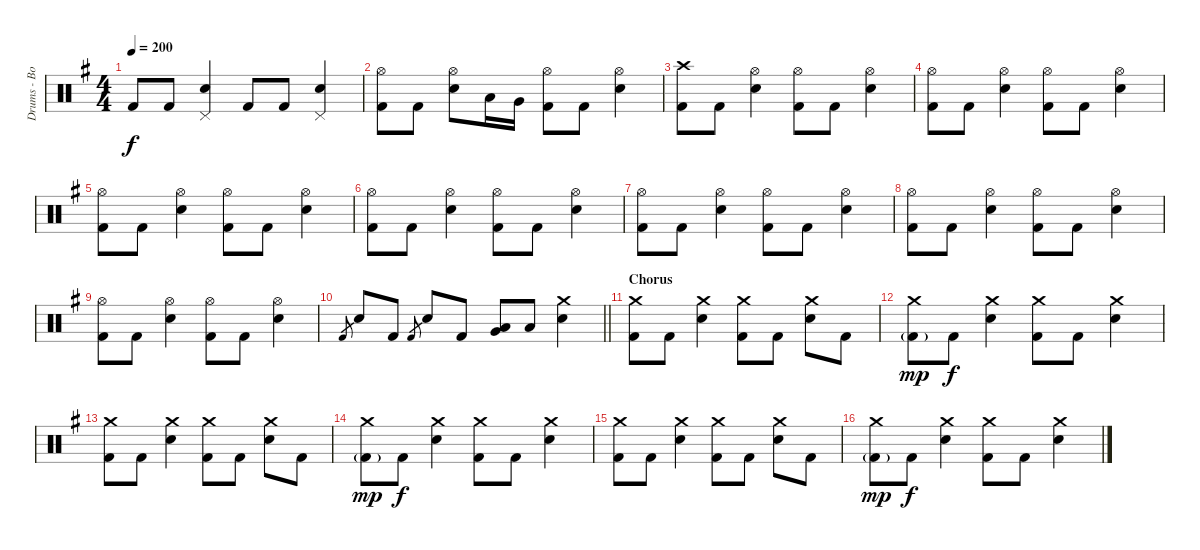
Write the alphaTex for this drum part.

\track ("Drums - Bob Bryar" "Drums - Bo") {instrument percussion}
\staff {score}
\articulation defaults
\ts (4 4)
\tempo 200
\clef neutral
\ks eminor "Kick (hit) 2".8{dy f} "Kick (hit) 2".8
("Electric Snare (hit)" "Pedal Hi-Hat (hit)").4 "Kick (hit) 2".8 "Kick (hit) 2".8 ("Electric Snare (hit)" "Pedal Hi-Hat (hit)").4 |
("Kick (hit) 2" "Hi-Hat (open)").8 "Kick (hit) 2".8 ("Electric Snare (hit)" "Hi-Hat (open)").8 "Low Tom (hit)".16 "Very Low Tom (hit)".16 ("Kick (hit) 2" "Hi-Hat (open)").8 "Kick (hit) 2".8 ("Electric Snare (hit)" "Hi-Hat (open)").4 |
("Kick (hit) 2" "Crash high (hit)").8 "Kick (hit) 2".8 ("Electric Snare (hit)" "Hi-Hat (open)").4 ("Kick (hit) 2" "Hi-Hat (open)").8 "Kick (hit) 2".8 ("Electric Snare (hit)" "Hi-Hat (open)").4 |
("Kick (hit) 2" "Hi-Hat (open)").8 "Kick (hit) 2".8 ("Electric Snare (hit)" "Hi-Hat (open)").4 ("Kick (hit) 2" "Hi-Hat (open)").8 "Kick (hit) 2".8 ("Electric Snare (hit)" "Hi-Hat (open)").4 |
("Kick (hit) 2" "Hi-Hat (open)").8 "Kick (hit) 2".8 ("Electric Snare (hit)" "Hi-Hat (open)").4 ("Kick (hit) 2" "Hi-Hat (open)").8 "Kick (hit) 2".8 ("Electric Snare (hit)" "Hi-Hat (open)").4 |
("Kick (hit) 2" "Hi-Hat (open)").8 "Kick (hit) 2".8 ("Electric Snare (hit)" "Hi-Hat (open)").4 ("Kick (hit) 2" "Hi-Hat (open)").8 "Kick (hit) 2".8 ("Electric Snare (hit)" "Hi-Hat (open)").4 |
("Kick (hit) 2" "Hi-Hat (open)").8 "Kick (hit) 2".8 ("Electric Snare (hit)" "Hi-Hat (open)").4 ("Kick (hit) 2" "Hi-Hat (open)").8 "Kick (hit) 2".8 ("Electric Snare (hit)" "Hi-Hat (open)").4 |
("Kick (hit) 2" "Hi-Hat (open)").8 "Kick (hit) 2".8 ("Electric Snare (hit)" "Hi-Hat (open)").4 ("Kick (hit) 2" "Hi-Hat (open)").8 "Kick (hit) 2".8 ("Electric Snare (hit)" "Hi-Hat (open)").4 |
("Kick (hit) 2" "Hi-Hat (open)").8 "Kick (hit) 2".8 ("Electric Snare (hit)" "Hi-Hat (open)").4 ("Kick (hit) 2" "Hi-Hat (open)").8 "Kick (hit) 2".8 ("Electric Snare (hit)" "Hi-Hat (open)").4 |
\barLineRight lightlight "Kick (hit) 2".8{gr} "Electric Snare (hit)".8 "Kick (hit) 2".8 "Kick (hit) 2".8{gr} "Electric Snare (hit)".8 "Kick (hit) 2".8
("Low Tom (hit)" "Very Low Tom (hit)").8 "Low Floor Tom (hit)".8 ("Electric Snare (hit)" "Crash medium (hit)").4 |
\section ("" "Chorus")
("Kick (hit) 2" "Crash medium (hit)").8 "Kick (hit) 2".8 ("Electric Snare (hit)" "Crash medium (hit)").4 ("Kick (hit) 2" "Crash medium (hit)").8 "Kick (hit) 2".8 ("Electric Snare (hit)" "Crash medium (hit)").8 "Kick (hit) 2".8 |
("Kick (hit) 2"{g} "Crash medium (hit)").8{dy mp} "Kick (hit) 2".8{dy f} ("Electric Snare (hit)" "Crash medium (hit)").4 ("Kick (hit) 2" "Crash medium (hit)").8 "Kick (hit) 2".8 ("Electric Snare (hit)" "Crash medium (hit)").4 |
("Kick (hit) 2" "Crash medium (hit)").8 "Kick (hit) 2".8 ("Electric Snare (hit)" "Crash medium (hit)").4 ("Kick (hit) 2" "Crash medium (hit)").8 "Kick (hit) 2".8 ("Electric Snare (hit)" "Crash medium (hit)").8 "Kick (hit) 2".8 |
("Kick (hit) 2"{g} "Crash medium (hit)").8{dy mp} "Kick (hit) 2".8{dy f} ("Electric Snare (hit)" "Crash medium (hit)").4 ("Kick (hit) 2" "Crash medium (hit)").8 "Kick (hit) 2".8 ("Electric Snare (hit)" "Crash medium (hit)").4 |
("Kick (hit) 2" "Crash medium (hit)").8 "Kick (hit) 2".8 ("Electric Snare (hit)" "Crash medium (hit)").4 ("Kick (hit) 2" "Crash medium (hit)").8 "Kick (hit) 2".8 ("Electric Snare (hit)" "Crash medium (hit)").8 "Kick (hit) 2".8 |
("Kick (hit) 2"{g} "Crash medium (hit)").8{dy mp} "Kick (hit) 2".8{dy f} ("Electric Snare (hit)" "Crash medium (hit)").4 ("Kick (hit) 2" "Crash medium (hit)").8 "Kick (hit) 2".8 ("Electric Snare (hit)" "Crash medium (hit)").4
